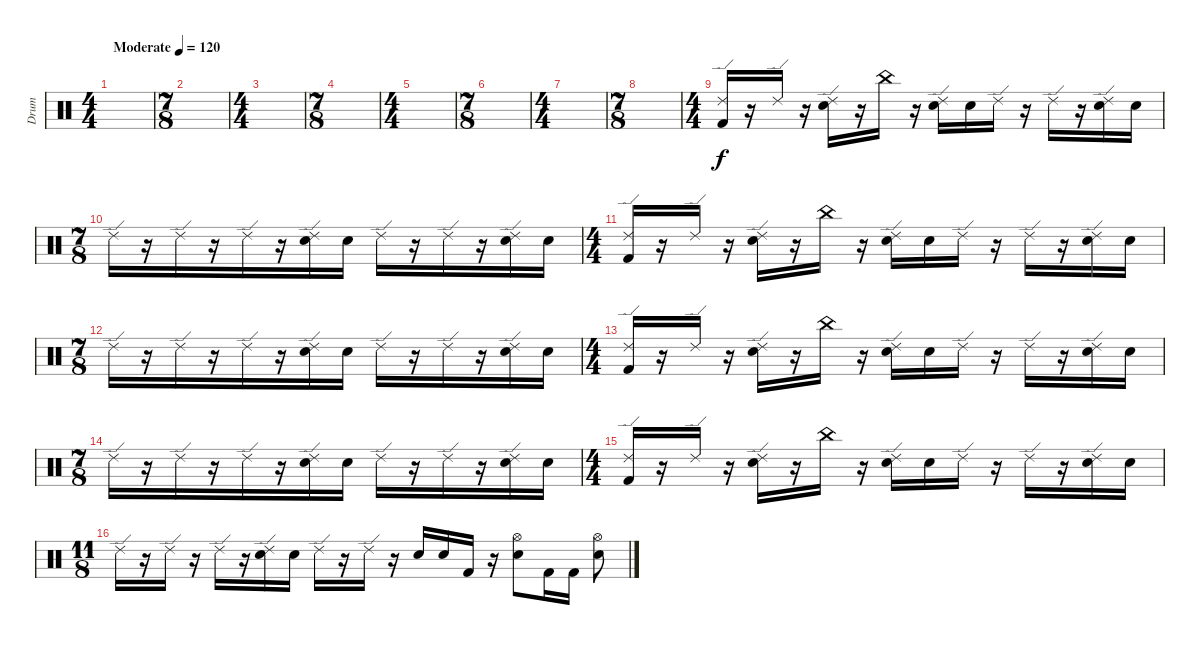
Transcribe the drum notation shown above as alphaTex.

\track ("Drum" "Drum") {instrument percussion}
\staff {score}
\articulation defaults
\ts (4 4)
\tempo (120 "Moderate")
\clef neutral
\ks c
|
\ts (7 8)
|
\ts (4 4)
|
\ts (7 8)
|
\ts (4 4)
|
\ts (7 8)
|
\ts (4 4)
|
\ts (7 8)
|
\ts (4 4)
("Ride (edge) 2" "Kick (hit) 2").16 r.16 "Ride (edge) 2".16 r.16 ("Ride (edge) 2" "Electric Snare (hit)").16 r.16 "China (hit)".16 r.16 ("Ride (edge) 2" "Electric Snare (hit)").16 "Electric Snare (hit)".16 "Ride (edge) 2".16 r.16 "Ride (edge) 2".16 r.16 ("Ride (edge) 2" "Electric Snare (hit)").16 "Electric Snare (hit)".16 |
\ts (7 8)
"Ride (edge) 2".16 r.16 "Ride (edge) 2".16 r.16 "Ride (edge) 2".16 r.16 ("Ride (edge) 2" "Electric Snare (hit)").16 "Electric Snare (hit)".16 "Ride (edge) 2".16 r.16 "Ride (edge) 2".16 r.16 ("Ride (edge) 2" "Electric Snare (hit)").16 "Electric Snare (hit)".16 |
\ts (4 4)
("Ride (edge) 2" "Kick (hit) 2").16 r.16 "Ride (edge) 2".16 r.16 ("Ride (edge) 2" "Electric Snare (hit)").16 r.16 "China (hit)".16 r.16 ("Ride (edge) 2" "Electric Snare (hit)").16 "Electric Snare (hit)".16 "Ride (edge) 2".16 r.16 "Ride (edge) 2".16 r.16 ("Ride (edge) 2" "Electric Snare (hit)").16 "Electric Snare (hit)".16 |
\ts (7 8)
"Ride (edge) 2".16 r.16 "Ride (edge) 2".16 r.16 "Ride (edge) 2".16 r.16 ("Ride (edge) 2" "Electric Snare (hit)").16 "Electric Snare (hit)".16 "Ride (edge) 2".16 r.16 "Ride (edge) 2".16 r.16 ("Ride (edge) 2" "Electric Snare (hit)").16 "Electric Snare (hit)".16 |
\ts (4 4)
("Ride (edge) 2" "Kick (hit) 2").16 r.16 "Ride (edge) 2".16 r.16 ("Ride (edge) 2" "Electric Snare (hit)").16 r.16 "China (hit)".16 r.16 ("Ride (edge) 2" "Electric Snare (hit)").16 "Electric Snare (hit)".16 "Ride (edge) 2".16 r.16 "Ride (edge) 2".16 r.16 ("Ride (edge) 2" "Electric Snare (hit)").16 "Electric Snare (hit)".16 |
\ts (7 8)
"Ride (edge) 2".16 r.16 "Ride (edge) 2".16 r.16 "Ride (edge) 2".16 r.16 ("Ride (edge) 2" "Electric Snare (hit)").16 "Electric Snare (hit)".16 "Ride (edge) 2".16 r.16 "Ride (edge) 2".16 r.16 ("Ride (edge) 2" "Electric Snare (hit)").16 "Electric Snare (hit)".16 |
\ts (4 4)
("Ride (edge) 2" "Kick (hit) 2").16 r.16 "Ride (edge) 2".16 r.16 ("Ride (edge) 2" "Electric Snare (hit)").16 r.16 "China (hit)".16 r.16 ("Ride (edge) 2" "Electric Snare (hit)").16 "Electric Snare (hit)".16 "Ride (edge) 2".16 r.16 "Ride (edge) 2".16 r.16 ("Ride (edge) 2" "Electric Snare (hit)").16 "Electric Snare (hit)".16 |
\ts (11 8)
"Ride (edge) 2".16 r.16 "Ride (edge) 2".16 r.16 "Ride (edge) 2".16 r.16 ("Ride (edge) 2" "Electric Snare (hit)").16 "Electric Snare (hit)".16 "Ride (edge) 2".16 r.16 "Ride (edge) 2".16 r.16 "Snare (hit) 2".16 "Snare (hit) 2".16 "Kick (hit) 2".16 r.16 ("Hi-Hat (open)" "Snare (hit) 2").8 "Kick (hit) 2".16 "Kick (hit) 2".16 ("Hi-Hat (open)" "Snare (hit) 2").8
